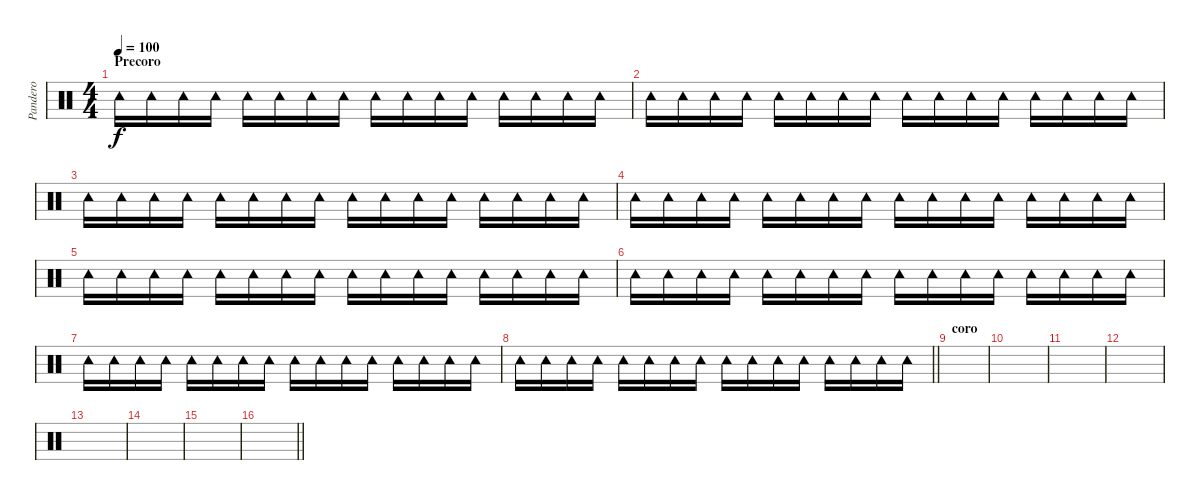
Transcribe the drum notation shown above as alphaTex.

\track ("Pandero" "Pandero") {instrument percussion}
\staff {score}
\articulation defaults
\ts (4 4)
\section ("" "Precoro")
\tempo 100
\clef neutral
\ks c "Tambourine (hit)".16{dy f} "Tambourine (hit)".16 "Tambourine (hit)".16 "Tambourine (hit)".16 "Tambourine (hit)".16 "Tambourine (hit)".16 "Tambourine (hit)".16 "Tambourine (hit)".16 "Tambourine (hit)".16 "Tambourine (hit)".16 "Tambourine (hit)".16 "Tambourine (hit)".16 "Tambourine (hit)".16 "Tambourine (hit)".16 "Tambourine (hit)".16 "Tambourine (hit)".16
|
"Tambourine (hit)".16 "Tambourine (hit)".16 "Tambourine (hit)".16 "Tambourine (hit)".16 "Tambourine (hit)".16 "Tambourine (hit)".16 "Tambourine (hit)".16 "Tambourine (hit)".16 "Tambourine (hit)".16 "Tambourine (hit)".16 "Tambourine (hit)".16 "Tambourine (hit)".16 "Tambourine (hit)".16 "Tambourine (hit)".16 "Tambourine (hit)".16 "Tambourine (hit)".16 |
"Tambourine (hit)".16 "Tambourine (hit)".16 "Tambourine (hit)".16 "Tambourine (hit)".16 "Tambourine (hit)".16 "Tambourine (hit)".16 "Tambourine (hit)".16 "Tambourine (hit)".16 "Tambourine (hit)".16 "Tambourine (hit)".16 "Tambourine (hit)".16 "Tambourine (hit)".16 "Tambourine (hit)".16 "Tambourine (hit)".16 "Tambourine (hit)".16 "Tambourine (hit)".16 |
"Tambourine (hit)".16 "Tambourine (hit)".16 "Tambourine (hit)".16 "Tambourine (hit)".16 "Tambourine (hit)".16 "Tambourine (hit)".16 "Tambourine (hit)".16 "Tambourine (hit)".16 "Tambourine (hit)".16 "Tambourine (hit)".16 "Tambourine (hit)".16 "Tambourine (hit)".16 "Tambourine (hit)".16 "Tambourine (hit)".16 "Tambourine (hit)".16 "Tambourine (hit)".16 |
"Tambourine (hit)".16 "Tambourine (hit)".16 "Tambourine (hit)".16 "Tambourine (hit)".16 "Tambourine (hit)".16 "Tambourine (hit)".16 "Tambourine (hit)".16 "Tambourine (hit)".16 "Tambourine (hit)".16 "Tambourine (hit)".16 "Tambourine (hit)".16 "Tambourine (hit)".16 "Tambourine (hit)".16 "Tambourine (hit)".16 "Tambourine (hit)".16 "Tambourine (hit)".16 |
"Tambourine (hit)".16 "Tambourine (hit)".16 "Tambourine (hit)".16 "Tambourine (hit)".16 "Tambourine (hit)".16 "Tambourine (hit)".16 "Tambourine (hit)".16 "Tambourine (hit)".16 "Tambourine (hit)".16 "Tambourine (hit)".16 "Tambourine (hit)".16 "Tambourine (hit)".16 "Tambourine (hit)".16 "Tambourine (hit)".16 "Tambourine (hit)".16 "Tambourine (hit)".16 |
"Tambourine (hit)".16 "Tambourine (hit)".16 "Tambourine (hit)".16 "Tambourine (hit)".16 "Tambourine (hit)".16 "Tambourine (hit)".16 "Tambourine (hit)".16 "Tambourine (hit)".16 "Tambourine (hit)".16 "Tambourine (hit)".16 "Tambourine (hit)".16 "Tambourine (hit)".16 "Tambourine (hit)".16 "Tambourine (hit)".16 "Tambourine (hit)".16 "Tambourine (hit)".16 |
\barLineRight lightlight "Tambourine (hit)".16 "Tambourine (hit)".16 "Tambourine (hit)".16 "Tambourine (hit)".16 "Tambourine (hit)".16 "Tambourine (hit)".16 "Tambourine (hit)".16 "Tambourine (hit)".16 "Tambourine (hit)".16 "Tambourine (hit)".16 "Tambourine (hit)".16 "Tambourine (hit)".16 "Tambourine (hit)".16 "Tambourine (hit)".16 "Tambourine (hit)".16 "Tambourine (hit)".16
|
\section ("" "coro")
|
|
|
|
|
|
|
\barLineRight lightlight
